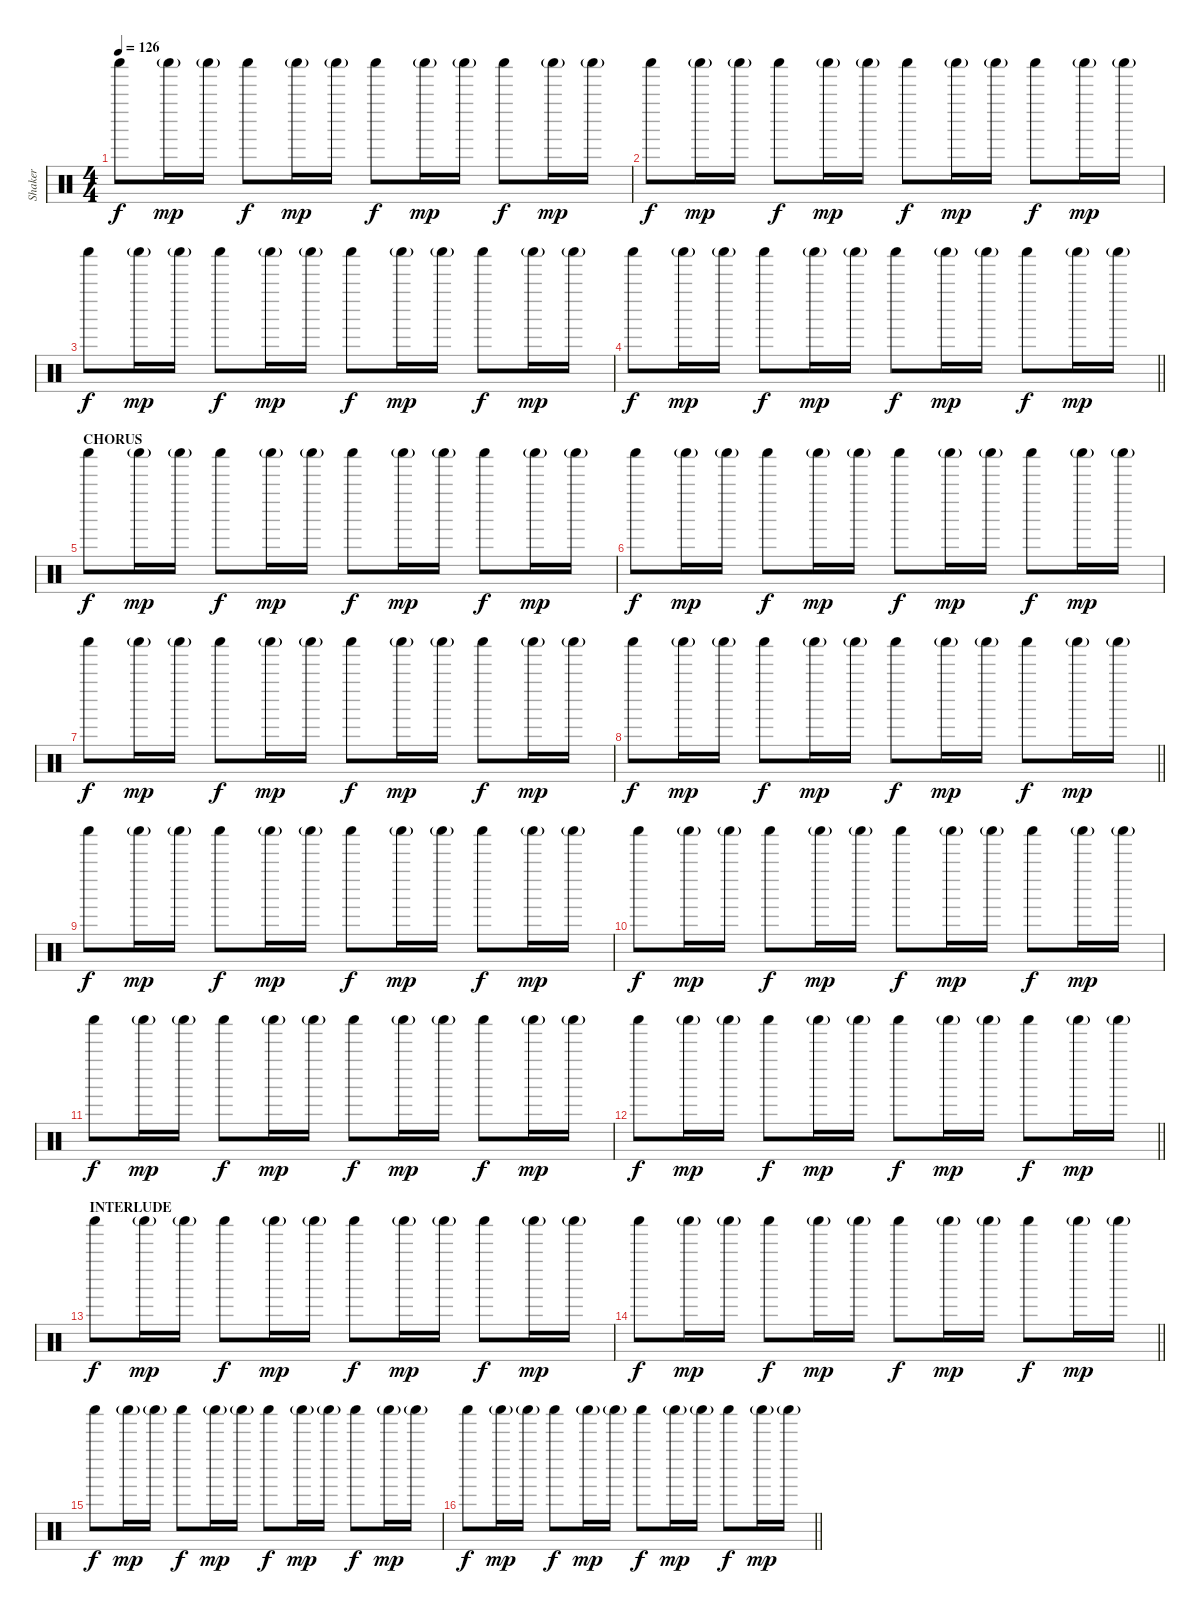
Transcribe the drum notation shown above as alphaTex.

\track ("Shaker" "Shaker") {instrument percussion}
\staff {score}
\articulation defaults
\ts (4 4)
\tempo 126
\clef neutral
\ks c "Shaker (hit)".8{dy f} "Shaker (hit)"{g}.16{dy mp} "Shaker (hit)"{g}.16 "Shaker (hit)".8{dy f} "Shaker (hit)"{g}.16{dy mp} "Shaker (hit)"{g}.16 "Shaker (hit)".8{dy f} "Shaker (hit)"{g}.16{dy mp} "Shaker (hit)"{g}.16 "Shaker (hit)".8{dy f} "Shaker (hit)"{g}.16{dy mp} "Shaker (hit)"{g}.16
|
"Shaker (hit)".8{dy f} "Shaker (hit)"{g}.16{dy mp} "Shaker (hit)"{g}.16 "Shaker (hit)".8{dy f} "Shaker (hit)"{g}.16{dy mp} "Shaker (hit)"{g}.16 "Shaker (hit)".8{dy f} "Shaker (hit)"{g}.16{dy mp} "Shaker (hit)"{g}.16 "Shaker (hit)".8{dy f} "Shaker (hit)"{g}.16{dy mp} "Shaker (hit)"{g}.16 |
"Shaker (hit)".8{dy f} "Shaker (hit)"{g}.16{dy mp} "Shaker (hit)"{g}.16 "Shaker (hit)".8{dy f} "Shaker (hit)"{g}.16{dy mp} "Shaker (hit)"{g}.16 "Shaker (hit)".8{dy f} "Shaker (hit)"{g}.16{dy mp} "Shaker (hit)"{g}.16 "Shaker (hit)".8{dy f} "Shaker (hit)"{g}.16{dy mp} "Shaker (hit)"{g}.16 |
\barLineRight lightlight "Shaker (hit)".8{dy f} "Shaker (hit)"{g}.16{dy mp} "Shaker (hit)"{g}.16 "Shaker (hit)".8{dy f} "Shaker (hit)"{g}.16{dy mp} "Shaker (hit)"{g}.16 "Shaker (hit)".8{dy f} "Shaker (hit)"{g}.16{dy mp} "Shaker (hit)"{g}.16 "Shaker (hit)".8{dy f} "Shaker (hit)"{g}.16{dy mp} "Shaker (hit)"{g}.16
|
\section ("" "CHORUS")
"Shaker (hit)".8{dy f} "Shaker (hit)"{g}.16{dy mp} "Shaker (hit)"{g}.16 "Shaker (hit)".8{dy f} "Shaker (hit)"{g}.16{dy mp} "Shaker (hit)"{g}.16 "Shaker (hit)".8{dy f} "Shaker (hit)"{g}.16{dy mp} "Shaker (hit)"{g}.16 "Shaker (hit)".8{dy f} "Shaker (hit)"{g}.16{dy mp} "Shaker (hit)"{g}.16 |
"Shaker (hit)".8{dy f} "Shaker (hit)"{g}.16{dy mp} "Shaker (hit)"{g}.16 "Shaker (hit)".8{dy f} "Shaker (hit)"{g}.16{dy mp} "Shaker (hit)"{g}.16 "Shaker (hit)".8{dy f} "Shaker (hit)"{g}.16{dy mp} "Shaker (hit)"{g}.16 "Shaker (hit)".8{dy f} "Shaker (hit)"{g}.16{dy mp} "Shaker (hit)"{g}.16 |
"Shaker (hit)".8{dy f} "Shaker (hit)"{g}.16{dy mp} "Shaker (hit)"{g}.16 "Shaker (hit)".8{dy f} "Shaker (hit)"{g}.16{dy mp} "Shaker (hit)"{g}.16 "Shaker (hit)".8{dy f} "Shaker (hit)"{g}.16{dy mp} "Shaker (hit)"{g}.16 "Shaker (hit)".8{dy f} "Shaker (hit)"{g}.16{dy mp} "Shaker (hit)"{g}.16 |
\barLineRight lightlight "Shaker (hit)".8{dy f} "Shaker (hit)"{g}.16{dy mp} "Shaker (hit)"{g}.16 "Shaker (hit)".8{dy f} "Shaker (hit)"{g}.16{dy mp} "Shaker (hit)"{g}.16 "Shaker (hit)".8{dy f} "Shaker (hit)"{g}.16{dy mp} "Shaker (hit)"{g}.16 "Shaker (hit)".8{dy f} "Shaker (hit)"{g}.16{dy mp} "Shaker (hit)"{g}.16
|
"Shaker (hit)".8{dy f} "Shaker (hit)"{g}.16{dy mp} "Shaker (hit)"{g}.16 "Shaker (hit)".8{dy f} "Shaker (hit)"{g}.16{dy mp} "Shaker (hit)"{g}.16 "Shaker (hit)".8{dy f} "Shaker (hit)"{g}.16{dy mp} "Shaker (hit)"{g}.16 "Shaker (hit)".8{dy f} "Shaker (hit)"{g}.16{dy mp} "Shaker (hit)"{g}.16 |
"Shaker (hit)".8{dy f} "Shaker (hit)"{g}.16{dy mp} "Shaker (hit)"{g}.16 "Shaker (hit)".8{dy f} "Shaker (hit)"{g}.16{dy mp} "Shaker (hit)"{g}.16 "Shaker (hit)".8{dy f} "Shaker (hit)"{g}.16{dy mp} "Shaker (hit)"{g}.16 "Shaker (hit)".8{dy f} "Shaker (hit)"{g}.16{dy mp} "Shaker (hit)"{g}.16 |
"Shaker (hit)".8{dy f} "Shaker (hit)"{g}.16{dy mp} "Shaker (hit)"{g}.16 "Shaker (hit)".8{dy f} "Shaker (hit)"{g}.16{dy mp} "Shaker (hit)"{g}.16 "Shaker (hit)".8{dy f} "Shaker (hit)"{g}.16{dy mp} "Shaker (hit)"{g}.16 "Shaker (hit)".8{dy f} "Shaker (hit)"{g}.16{dy mp} "Shaker (hit)"{g}.16 |
\barLineRight lightlight "Shaker (hit)".8{dy f} "Shaker (hit)"{g}.16{dy mp} "Shaker (hit)"{g}.16 "Shaker (hit)".8{dy f} "Shaker (hit)"{g}.16{dy mp} "Shaker (hit)"{g}.16 "Shaker (hit)".8{dy f} "Shaker (hit)"{g}.16{dy mp} "Shaker (hit)"{g}.16 "Shaker (hit)".8{dy f} "Shaker (hit)"{g}.16{dy mp} "Shaker (hit)"{g}.16
|
\section ("" "INTERLUDE")
"Shaker (hit)".8{dy f} "Shaker (hit)"{g}.16{dy mp} "Shaker (hit)"{g}.16 "Shaker (hit)".8{dy f} "Shaker (hit)"{g}.16{dy mp} "Shaker (hit)"{g}.16 "Shaker (hit)".8{dy f} "Shaker (hit)"{g}.16{dy mp} "Shaker (hit)"{g}.16 "Shaker (hit)".8{dy f} "Shaker (hit)"{g}.16{dy mp} "Shaker (hit)"{g}.16 |
\barLineRight lightlight "Shaker (hit)".8{dy f} "Shaker (hit)"{g}.16{dy mp} "Shaker (hit)"{g}.16 "Shaker (hit)".8{dy f} "Shaker (hit)"{g}.16{dy mp} "Shaker (hit)"{g}.16 "Shaker (hit)".8{dy f} "Shaker (hit)"{g}.16{dy mp} "Shaker (hit)"{g}.16 "Shaker (hit)".8{dy f} "Shaker (hit)"{g}.16{dy mp} "Shaker (hit)"{g}.16
|
"Shaker (hit)".8{dy f} "Shaker (hit)"{g}.16{dy mp} "Shaker (hit)"{g}.16 "Shaker (hit)".8{dy f} "Shaker (hit)"{g}.16{dy mp} "Shaker (hit)"{g}.16 "Shaker (hit)".8{dy f} "Shaker (hit)"{g}.16{dy mp} "Shaker (hit)"{g}.16 "Shaker (hit)".8{dy f} "Shaker (hit)"{g}.16{dy mp} "Shaker (hit)"{g}.16 |
\barLineRight lightlight "Shaker (hit)".8{dy f} "Shaker (hit)"{g}.16{dy mp} "Shaker (hit)"{g}.16 "Shaker (hit)".8{dy f} "Shaker (hit)"{g}.16{dy mp} "Shaker (hit)"{g}.16 "Shaker (hit)".8{dy f} "Shaker (hit)"{g}.16{dy mp} "Shaker (hit)"{g}.16 "Shaker (hit)".8{dy f} "Shaker (hit)"{g}.16{dy mp} "Shaker (hit)"{g}.16
